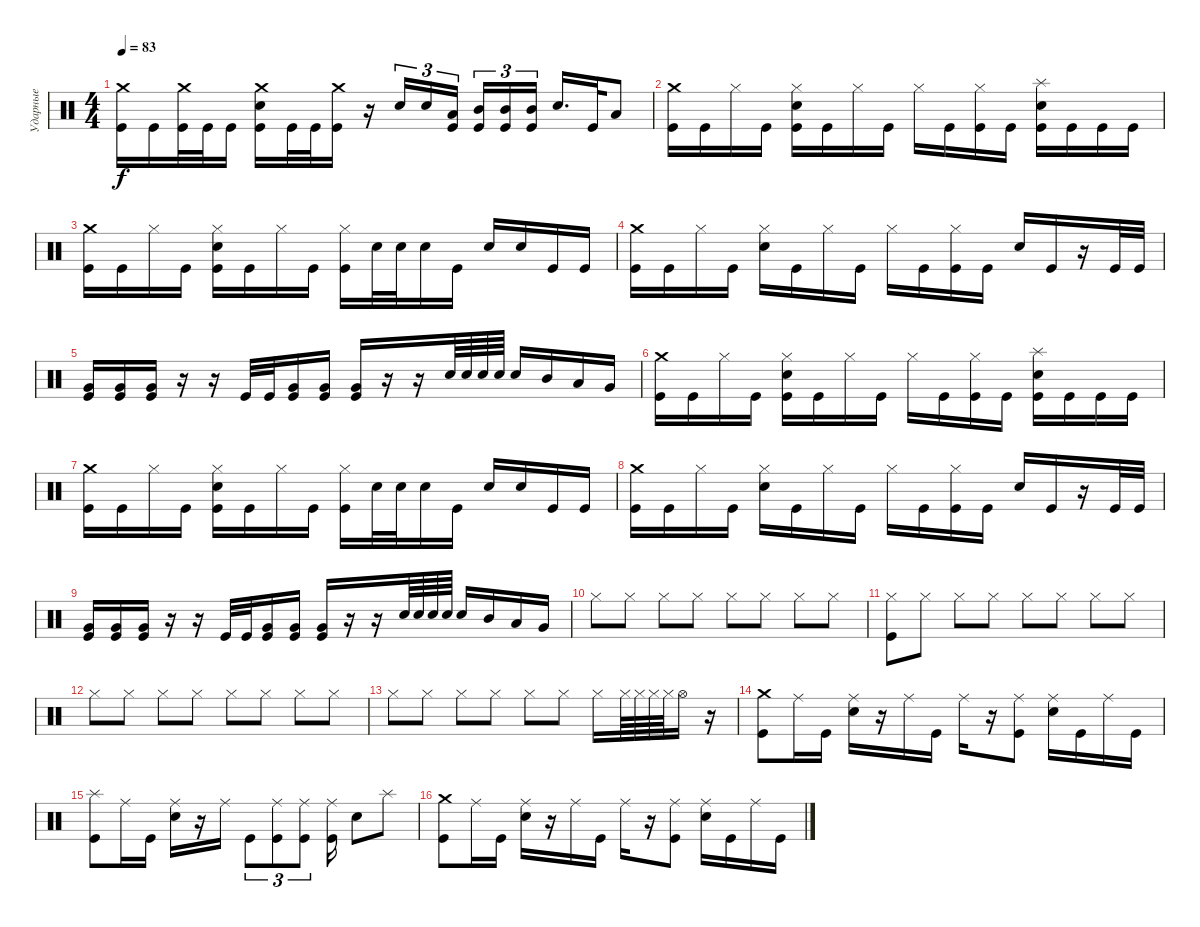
\track ("Ударные" "Ударные") {instrument percussion}
\staff {score}
\articulation defaults
\ts (4 4)
\tempo 83
\clef neutral
\ks c
("Crash medium (hit)" "Kick (hit)").16{dy f} "Kick (hit)".16 ("Crash medium (hit)" "Kick (hit)").32 "Kick (hit)".32 "Kick (hit)".16 ("Crash medium (hit)" "Snare (hit) 2" "Kick (hit)").16 "Kick (hit)".32 "Kick (hit)".32 ("Crash medium (hit)" "Kick (hit)").16 r.16 "Snare (hit) 2".16{tu (3 2)} "Snare (hit) 2".16{tu (3 2)} ("Low Tom (hit)" "Kick (hit)").16{tu (3 2) beam splitsecondary} ("Mid Tom (hit)" "Kick (hit)").16{tu (3 2)} ("Mid Tom (hit)" "Kick (hit)").16{tu (3 2)} ("Mid Tom (hit)" "Kick (hit)").16{tu (3 2)} "Snare (hit) 2".16{d} "Kick (hit)".32 "Low Floor Tom (hit)".8 |
("Crash medium (hit)" "Kick (hit)").16 "Kick (hit)".16 "Hi-Hat (closed)".16 "Kick (hit)".16 ("Hi-Hat (closed)" "Snare (hit) 2" "Kick (hit)").16 "Kick (hit)".16 "Hi-Hat (closed)".16 "Kick (hit)".16 "Hi-Hat (closed)".16 "Kick (hit)".16 ("Hi-Hat (closed)" "Kick (hit)").16 "Kick (hit)".16 ("Splash (hit)" "Snare (hit) 2" "Kick (hit)").16 "Kick (hit)".16 "Kick (hit)".16 "Kick (hit)".16 |
("Crash medium (hit)" "Kick (hit)").16 "Kick (hit)".16 "Hi-Hat (closed)".16 "Kick (hit)".16 ("Hi-Hat (closed)" "Snare (hit) 2" "Kick (hit)").16 "Kick (hit)".16 "Hi-Hat (closed)".16 "Kick (hit)".16 ("Hi-Hat (closed)" "Kick (hit)").16 "Snare (hit) 2".32 "Snare (hit) 2".32 "Snare (hit) 2".16 "Kick (hit)".16 "Snare (hit) 2".16 "Snare (hit) 2".16 "Kick (hit)".16 "Kick (hit)".16 |
("Crash medium (hit)" "Kick (hit)").16 "Kick (hit)".16 "Hi-Hat (closed)".16 "Kick (hit)".16 ("Hi-Hat (closed)" "Snare (hit) 2").16 "Kick (hit)".16 "Hi-Hat (closed)".16 "Kick (hit)".16 "Hi-Hat (closed)".16 "Kick (hit)".16 ("Hi-Hat (closed)" "Kick (hit)").16 "Kick (hit)".16 "Snare (hit) 2".16 "Kick (hit)".16 r.16 "Kick (hit)".32 "Kick (hit)".32 |
("Very Low Tom (hit)" "Kick (hit)").16 ("Very Low Tom (hit)" "Kick (hit)").16 ("Very Low Tom (hit)" "Kick (hit)").16 r.16 r.16 "Kick (hit)".32 "Kick (hit)".32 ("Very Low Tom (hit)" "Kick (hit)").16 ("Very Low Tom (hit)" "Kick (hit)").16 ("Very Low Tom (hit)" "Kick (hit)").16 r.16 r.16 "Snare (hit) 2".64 "Snare (hit) 2".64 "Snare (hit) 2".64 "Snare (hit) 2".64 "Snare (hit) 2".16 "Mid Tom (hit)".16 "Low Tom (hit)".16 "Very Low Tom (hit)".16 |
("Crash medium (hit)" "Kick (hit)").16 "Kick (hit)".16 "Hi-Hat (closed)".16 "Kick (hit)".16 ("Hi-Hat (closed)" "Snare (hit) 2" "Kick (hit)").16 "Kick (hit)".16 "Hi-Hat (closed)".16 "Kick (hit)".16 "Hi-Hat (closed)".16 "Kick (hit)".16 ("Hi-Hat (closed)" "Kick (hit)").16 "Kick (hit)".16 ("Splash (hit)" "Snare (hit) 2" "Kick (hit)").16 "Kick (hit)".16 "Kick (hit)".16 "Kick (hit)".16 |
("Crash medium (hit)" "Kick (hit)").16 "Kick (hit)".16 "Hi-Hat (closed)".16 "Kick (hit)".16 ("Hi-Hat (closed)" "Snare (hit) 2" "Kick (hit)").16 "Kick (hit)".16 "Hi-Hat (closed)".16 "Kick (hit)".16 ("Hi-Hat (closed)" "Kick (hit)").16 "Snare (hit) 2".32 "Snare (hit) 2".32 "Snare (hit) 2".16 "Kick (hit)".16 "Snare (hit) 2".16 "Snare (hit) 2".16 "Kick (hit)".16 "Kick (hit)".16 |
("Crash medium (hit)" "Kick (hit)").16 "Kick (hit)".16 "Hi-Hat (closed)".16 "Kick (hit)".16 ("Hi-Hat (closed)" "Snare (hit) 2").16 "Kick (hit)".16 "Hi-Hat (closed)".16 "Kick (hit)".16 "Hi-Hat (closed)".16 "Kick (hit)".16 ("Hi-Hat (closed)" "Kick (hit)").16 "Kick (hit)".16 "Snare (hit) 2".16 "Kick (hit)".16 r.16 "Kick (hit)".32 "Kick (hit)".32 |
("Very Low Tom (hit)" "Kick (hit)").16 ("Very Low Tom (hit)" "Kick (hit)").16 ("Very Low Tom (hit)" "Kick (hit)").16 r.16 r.16 "Kick (hit)".32 "Kick (hit)".32 ("Very Low Tom (hit)" "Kick (hit)").16 ("Very Low Tom (hit)" "Kick (hit)").16 ("Very Low Tom (hit)" "Kick (hit)").16 r.16 r.16 "Snare (hit) 2".64 "Snare (hit) 2".64 "Snare (hit) 2".64 "Snare (hit) 2".64 "Snare (hit) 2".16 "Mid Tom (hit)".16 "Low Tom (hit)".16 "Very Low Tom (hit)".16 |
"Hi-Hat (closed)".8 "Hi-Hat (closed)".8 "Hi-Hat (closed)".8 "Hi-Hat (closed)".8 "Hi-Hat (closed)".8 "Hi-Hat (closed)".8 "Hi-Hat (closed)".8 "Hi-Hat (closed)".8 |
("Hi-Hat (closed)" "Kick (hit)").8 "Hi-Hat (closed)".8 "Hi-Hat (closed)".8 "Hi-Hat (closed)".8 "Hi-Hat (closed)".8 "Hi-Hat (closed)".8 "Hi-Hat (closed)".8 "Hi-Hat (closed)".8 |
"Hi-Hat (closed)".8 "Hi-Hat (closed)".8 "Hi-Hat (closed)".8 "Hi-Hat (closed)".8 "Hi-Hat (closed)".8 "Hi-Hat (closed)".8 "Hi-Hat (closed)".8 "Hi-Hat (closed)".8 |
"Hi-Hat (closed)".8 "Hi-Hat (closed)".8 "Hi-Hat (closed)".8 "Hi-Hat (closed)".8 "Hi-Hat (closed)".8 "Hi-Hat (closed)".8 "Hi-Hat (closed)".16 "Hi-Hat (closed)".64 "Hi-Hat (closed)".64 "Hi-Hat (closed)".64 "Hi-Hat (closed)".64 "Hi-Hat (open)".16 r.16 |
("Crash medium (hit)" "Kick (hit)").8 "Ride (middle)".16 "Kick (hit)".16 ("Ride (middle)" "Snare (hit) 2").16 r.16 "Ride (middle)".16 "Kick (hit)".16 "Ride (middle)".16 r.16 ("Ride (middle)" "Kick (hit)").8 ("Ride (middle)" "Snare (hit) 2").16 "Kick (hit)".16 "Ride (middle)".16 "Kick (hit)".16 |
("Splash (hit)" "Kick (hit)").8 "Ride (middle)".16 "Kick (hit)".16 ("Ride (middle)" "Snare (hit) 2").16 r.16 "Ride (middle)".16 "Kick (hit)".8{tu (3 2)} ("Ride (middle)" "Kick (hit)").8{tu (3 2)} ("Ride (middle)" "Kick (hit)").8{tu (3 2)} ("Ride (middle)" "Kick (hit)").16 "Snare (hit) 2".8 "Splash (hit)".8 |
("Crash medium (hit)" "Kick (hit)").8 "Ride (middle)".16 "Kick (hit)".16 ("Ride (middle)" "Snare (hit) 2").16 r.16 "Ride (middle)".16 "Kick (hit)".16 "Ride (middle)".16 r.16 ("Ride (middle)" "Kick (hit)").8 ("Ride (middle)" "Snare (hit) 2").16 "Kick (hit)".16 "Ride (middle)".16 "Kick (hit)".16
